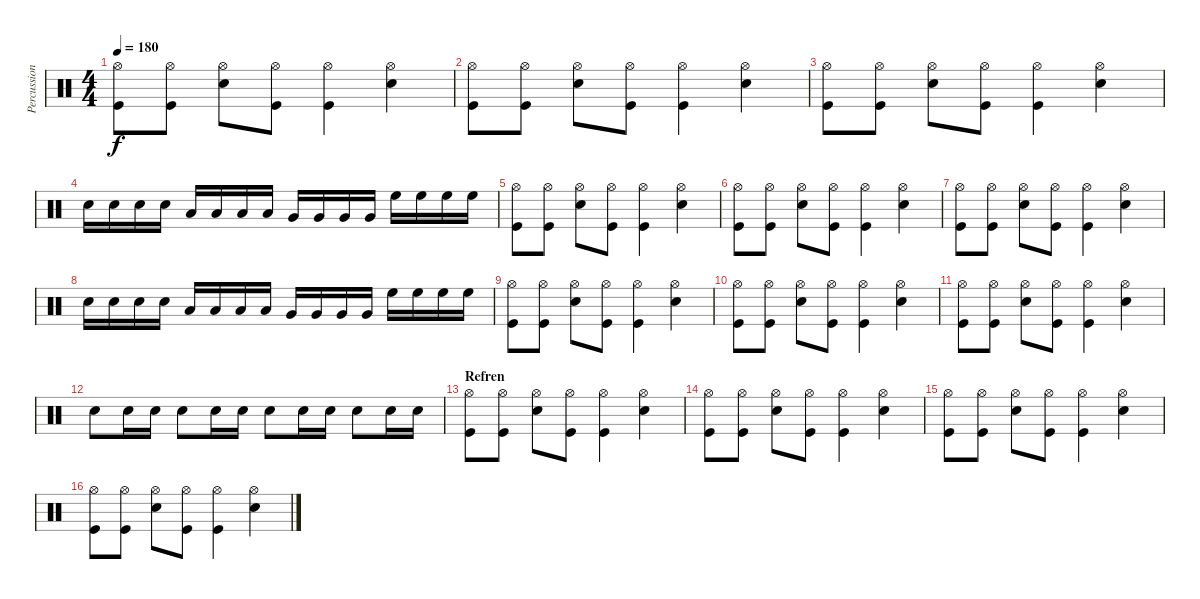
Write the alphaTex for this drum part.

\track ("Percussion" "Percussion") {instrument percussion}
\staff {score}
\articulation defaults
\ts (4 4)
\tempo 180
\clef neutral
\ks c
("Hi-Hat (open)" "Kick (hit)").8{dy f} ("Hi-Hat (open)" "Kick (hit)").8 ("Hi-Hat (open)" "Snare (hit) 2").8 ("Hi-Hat (open)" "Kick (hit)").8 ("Hi-Hat (open)" "Kick (hit)").4 ("Hi-Hat (open)" "Snare (hit) 2").4 |
("Hi-Hat (open)" "Kick (hit)").8 ("Hi-Hat (open)" "Kick (hit)").8 ("Hi-Hat (open)" "Snare (hit) 2").8 ("Hi-Hat (open)" "Kick (hit)").8 ("Hi-Hat (open)" "Kick (hit)").4 ("Hi-Hat (open)" "Snare (hit) 2").4 |
("Hi-Hat (open)" "Kick (hit)").8 ("Hi-Hat (open)" "Kick (hit)").8 ("Hi-Hat (open)" "Snare (hit) 2").8 ("Hi-Hat (open)" "Kick (hit)").8 ("Hi-Hat (open)" "Kick (hit)").4 ("Hi-Hat (open)" "Snare (hit) 2").4 |
"Snare (hit) 2".16 "Snare (hit) 2".16 "Snare (hit) 2".16 "Snare (hit) 2".16 "Low Floor Tom (hit)".16 "Low Floor Tom (hit)".16 "Low Floor Tom (hit)".16 "Low Floor Tom (hit)".16 "Very Low Tom (hit)".16 "Very Low Tom (hit)".16 "Very Low Tom (hit)".16 "Very Low Tom (hit)".16 "High Floor Tom (hit)".16 "High Floor Tom (hit)".16 "High Floor Tom (hit)".16 "High Floor Tom (hit)".16 |
("Hi-Hat (open)" "Kick (hit)").8 ("Hi-Hat (open)" "Kick (hit)").8 ("Hi-Hat (open)" "Snare (hit) 2").8 ("Hi-Hat (open)" "Kick (hit)").8 ("Hi-Hat (open)" "Kick (hit)").4 ("Hi-Hat (open)" "Snare (hit) 2").4 |
("Hi-Hat (open)" "Kick (hit)").8 ("Hi-Hat (open)" "Kick (hit)").8 ("Hi-Hat (open)" "Snare (hit) 2").8 ("Hi-Hat (open)" "Kick (hit)").8 ("Hi-Hat (open)" "Kick (hit)").4 ("Hi-Hat (open)" "Snare (hit) 2").4 |
("Hi-Hat (open)" "Kick (hit)").8 ("Hi-Hat (open)" "Kick (hit)").8 ("Hi-Hat (open)" "Snare (hit) 2").8 ("Hi-Hat (open)" "Kick (hit)").8 ("Hi-Hat (open)" "Kick (hit)").4 ("Hi-Hat (open)" "Snare (hit) 2").4 |
"Snare (hit) 2".16 "Snare (hit) 2".16 "Snare (hit) 2".16 "Snare (hit) 2".16 "Low Floor Tom (hit)".16 "Low Floor Tom (hit)".16 "Low Floor Tom (hit)".16 "Low Floor Tom (hit)".16 "Very Low Tom (hit)".16 "Very Low Tom (hit)".16 "Very Low Tom (hit)".16 "Very Low Tom (hit)".16 "High Floor Tom (hit)".16 "High Floor Tom (hit)".16 "High Floor Tom (hit)".16 "High Floor Tom (hit)".16 |
("Hi-Hat (open)" "Kick (hit)").8 ("Hi-Hat (open)" "Kick (hit)").8 ("Hi-Hat (open)" "Electric Snare (hit)").8 ("Hi-Hat (open)" "Kick (hit)").8 ("Hi-Hat (open)" "Kick (hit)").4 ("Hi-Hat (open)" "Electric Snare (hit)").4 |
("Hi-Hat (open)" "Kick (hit)").8 ("Hi-Hat (open)" "Kick (hit)").8 ("Hi-Hat (open)" "Electric Snare (hit)").8 ("Hi-Hat (open)" "Kick (hit)").8 ("Hi-Hat (open)" "Kick (hit)").4 ("Hi-Hat (open)" "Electric Snare (hit)").4 |
("Hi-Hat (open)" "Kick (hit)").8 ("Hi-Hat (open)" "Kick (hit)").8 ("Hi-Hat (open)" "Electric Snare (hit)").8 ("Hi-Hat (open)" "Kick (hit)").8 ("Hi-Hat (open)" "Kick (hit)").4 ("Hi-Hat (open)" "Electric Snare (hit)").4 |
"Snare (hit) 2".8 "Snare (hit) 2".16 "Snare (hit) 2".16 "Snare (hit) 2".8 "Snare (hit) 2".16 "Snare (hit) 2".16 "Snare (hit) 2".8 "Snare (hit) 2".16 "Snare (hit) 2".16 "Snare (hit) 2".8 "Snare (hit) 2".16 "Snare (hit) 2".16 |
\section ("" "Refren")
("Hi-Hat (open)" "Kick (hit)").8 ("Hi-Hat (open)" "Kick (hit)").8 ("Hi-Hat (open)" "Electric Snare (hit)").8 ("Hi-Hat (open)" "Kick (hit)").8 ("Hi-Hat (open)" "Kick (hit)").4 ("Hi-Hat (open)" "Electric Snare (hit)").4 |
("Hi-Hat (open)" "Kick (hit)").8 ("Hi-Hat (open)" "Kick (hit)").8 ("Hi-Hat (open)" "Electric Snare (hit)").8 ("Hi-Hat (open)" "Kick (hit)").8 ("Hi-Hat (open)" "Kick (hit)").4 ("Hi-Hat (open)" "Electric Snare (hit)").4 |
("Hi-Hat (open)" "Kick (hit)").8 ("Hi-Hat (open)" "Kick (hit)").8 ("Hi-Hat (open)" "Electric Snare (hit)").8 ("Hi-Hat (open)" "Kick (hit)").8 ("Hi-Hat (open)" "Kick (hit)").4 ("Hi-Hat (open)" "Electric Snare (hit)").4 |
("Hi-Hat (open)" "Kick (hit)").8 ("Hi-Hat (open)" "Kick (hit)").8 ("Hi-Hat (open)" "Electric Snare (hit)").8 ("Hi-Hat (open)" "Kick (hit)").8 ("Hi-Hat (open)" "Kick (hit)").4 ("Hi-Hat (open)" "Electric Snare (hit)").4
